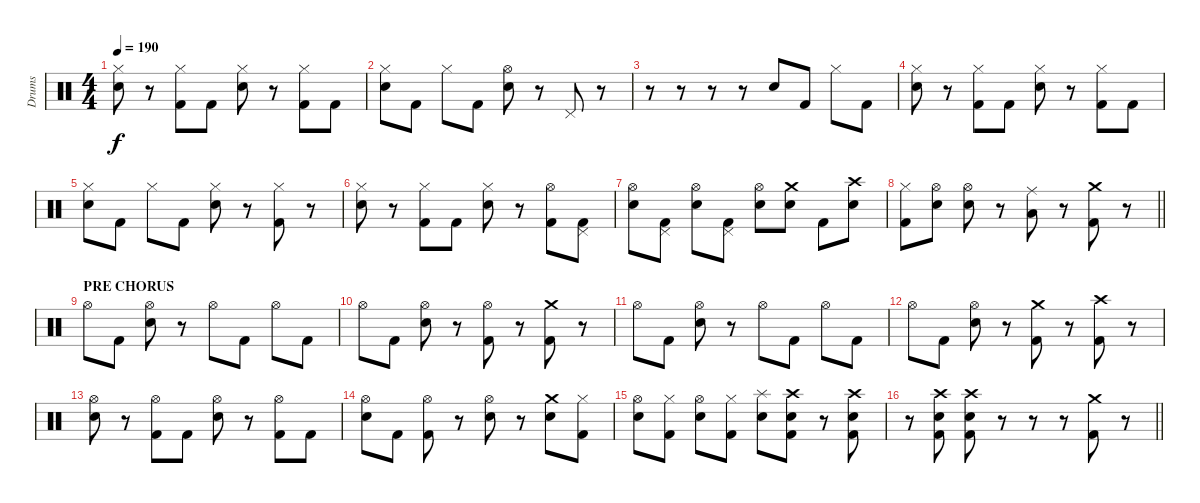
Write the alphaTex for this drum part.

\track ("Drums" "Drums") {instrument percussion}
\staff {score}
\articulation defaults
\ts (4 4)
\tempo 190
\clef neutral
\ks c
("Snare (hit) 2" "Hi-Hat (closed)").8{dy f} r.8 ("Kick (hit) 2" "Hi-Hat (closed)").8 "Kick (hit) 2".8 ("Snare (hit) 2" "Hi-Hat (closed)").8 r.8 ("Kick (hit) 2" "Hi-Hat (closed)").8 "Kick (hit) 2".8 |
("Snare (hit) 2" "Hi-Hat (closed)").8 "Kick (hit) 2".8 "Hi-Hat (closed)".8 "Kick (hit) 2".8 ("Snare (hit) 2" "Hi-Hat (open)").8 r.8 "Pedal Hi-Hat (hit)".8 r.8 |
r.8 r.8 r.8 r.8 "Snare (hit) 2".8 "Kick (hit) 2".8 "Hi-Hat (closed)".8 "Kick (hit) 2".8 |
("Snare (hit) 2" "Hi-Hat (closed)").8 r.8 ("Kick (hit) 2" "Hi-Hat (closed)").8 "Kick (hit) 2".8 ("Snare (hit) 2" "Hi-Hat (closed)").8 r.8 ("Kick (hit) 2" "Hi-Hat (closed)").8 "Kick (hit) 2".8 |
("Snare (hit) 2" "Hi-Hat (closed)").8 "Kick (hit) 2".8 "Hi-Hat (closed)".8 "Kick (hit) 2".8 ("Snare (hit) 2" "Hi-Hat (closed)").8 r.8 ("Kick (hit) 2" "Hi-Hat (closed)").8 r.8 |
("Snare (hit) 2" "Hi-Hat (closed)").8 r.8 ("Kick (hit) 2" "Hi-Hat (closed)").8 "Kick (hit) 2".8 ("Snare (hit) 2" "Hi-Hat (closed)").8 r.8 ("Kick (hit) 2" "Hi-Hat (open)").8 ("Kick (hit) 2" "Pedal Hi-Hat (hit)").8 |
("Snare (hit) 2" "Hi-Hat (open)").8 ("Kick (hit) 2" "Pedal Hi-Hat (hit)").8 ("Snare (hit) 2" "Hi-Hat (open)").8 ("Kick (hit) 2" "Pedal Hi-Hat (hit)").8 ("Snare (hit) 2" "Hi-Hat (open)").8 ("Snare (hit) 2" "Crash medium (hit)").8 "Kick (hit) 2".8 ("Snare (hit) 2" "Crash high (hit)").8 |
\barLineRight lightlight
("Kick (hit) 2" "Hi-Hat (closed)").8 ("Snare (hit) 2" "Hi-Hat (open)").8 ("Snare (hit) 2" "Hi-Hat (open)").8 r.8 ("Low Tom (hit)" "Ride (middle)").8 r.8 ("Kick (hit) 2" "Crash medium (hit)").8 r.8 |
\section ("" "PRE CHORUS")
"Hi-Hat (open)".8 "Kick (hit) 2".8 ("Snare (hit) 2" "Hi-Hat (open)").8 r.8 "Hi-Hat (open)".8 "Kick (hit) 2".8 "Hi-Hat (open)".8 "Kick (hit) 2".8 |
"Hi-Hat (open)".8 "Kick (hit) 2".8 ("Snare (hit) 2" "Hi-Hat (open)").8 r.8 ("Kick (hit) 2" "Hi-Hat (open)").8 r.8 ("Kick (hit) 2" "Crash medium (hit)").8 r.8 |
"Hi-Hat (open)".8 "Kick (hit) 2".8 ("Snare (hit) 2" "Hi-Hat (open)").8 r.8 "Hi-Hat (open)".8 "Kick (hit) 2".8 "Hi-Hat (open)".8 "Kick (hit) 2".8 |
"Hi-Hat (open)".8 "Kick (hit) 2".8 ("Snare (hit) 2" "Hi-Hat (open)").8 r.8 ("Kick (hit) 2" "Crash medium (hit)").8 r.8 ("Kick (hit) 2" "Crash high (hit)").8 r.8 |
("Snare (hit) 2" "Hi-Hat (open)").8 r.8 ("Kick (hit) 2" "Hi-Hat (open)").8 "Kick (hit) 2".8 ("Snare (hit) 2" "Hi-Hat (open)").8 r.8 ("Kick (hit) 2" "Hi-Hat (open)").8 "Kick (hit) 2".8 |
("Snare (hit) 2" "Hi-Hat (open)").8 "Kick (hit) 2".8 ("Kick (hit) 2" "Hi-Hat (open)").8 r.8 ("Snare (hit) 2" "Hi-Hat (open)").8 r.8 ("Snare (hit) 2" "Crash medium (hit)").8 ("Kick (hit) 2" "Hi-Hat (closed)").8 |
("Snare (hit) 2" "Hi-Hat (open)").8 ("Kick (hit) 2" "Hi-Hat (closed)").8 ("Snare (hit) 2" "Hi-Hat (open)").8 ("Kick (hit) 2" "Hi-Hat (closed)").8 ("Snare (hit) 2" "Splash (hit)").8 ("Snare (hit) 2" "Kick (hit) 2" "Crash high (hit)").8 r.8{volume 0} ("Snare (hit) 2" "Kick (hit) 2" "Crash high (hit)").8{volume 13} |
\barLineRight lightlight
r.8{volume 0} ("Snare (hit) 2" "Kick (hit) 2" "Crash high (hit)").8{volume 13} ("Snare (hit) 2" "Kick (hit) 2" "Crash high (hit)").8 r.8 r.8 r.8 ("Crash medium (hit)" "Kick (hit) 2").8 r.8
